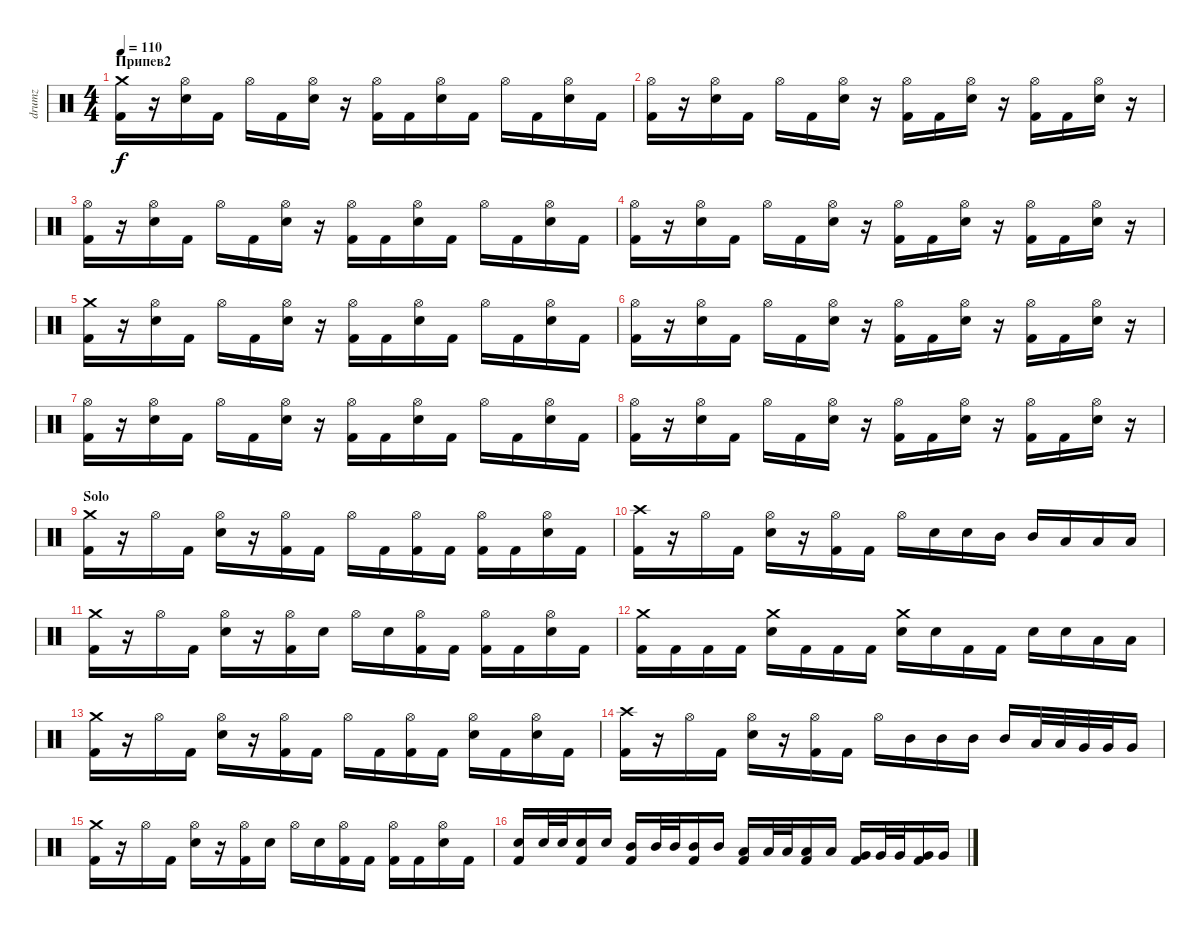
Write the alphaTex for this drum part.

\track ("drumz" "drumz") {instrument percussion}
\staff {score}
\articulation defaults
\ts (4 4)
\section ("" "Припев2")
\tempo 110
\clef neutral
\ks c
("Crash medium (hit)" "Kick (hit) 2").16{dy f} r.16 ("Hi-Hat (open)" "Electric Snare (hit)").16 "Kick (hit) 2".16 "Hi-Hat (open)".16 "Kick (hit) 2".16 ("Hi-Hat (open)" "Electric Snare (hit)").16 r.16 ("Hi-Hat (open)" "Kick (hit) 2").16 "Kick (hit) 2".16 ("Hi-Hat (open)" "Electric Snare (hit)").16 "Kick (hit) 2".16 "Hi-Hat (open)".16 "Kick (hit) 2".16 ("Hi-Hat (open)" "Electric Snare (hit)").16 "Kick (hit) 2".16 |
("Hi-Hat (open)" "Kick (hit) 2").16 r.16 ("Hi-Hat (open)" "Electric Snare (hit)").16 "Kick (hit) 2".16 "Hi-Hat (open)".16 "Kick (hit) 2".16 ("Hi-Hat (open)" "Electric Snare (hit)").16 r.16 ("Hi-Hat (open)" "Kick (hit) 2").16 "Kick (hit) 2".16 ("Hi-Hat (open)" "Electric Snare (hit)").16 r.16 ("Hi-Hat (open)" "Kick (hit) 2").16 "Kick (hit) 2".16 ("Hi-Hat (open)" "Electric Snare (hit)").16 r.16 |
("Hi-Hat (open)" "Kick (hit) 2").16 r.16 ("Hi-Hat (open)" "Electric Snare (hit)").16 "Kick (hit) 2".16 "Hi-Hat (open)".16 "Kick (hit) 2".16 ("Hi-Hat (open)" "Electric Snare (hit)").16 r.16 ("Hi-Hat (open)" "Kick (hit) 2").16 "Kick (hit) 2".16 ("Hi-Hat (open)" "Electric Snare (hit)").16 "Kick (hit) 2".16 "Hi-Hat (open)".16 "Kick (hit) 2".16 ("Hi-Hat (open)" "Electric Snare (hit)").16 "Kick (hit) 2".16 |
("Hi-Hat (open)" "Kick (hit) 2").16 r.16 ("Hi-Hat (open)" "Electric Snare (hit)").16 "Kick (hit) 2".16 "Hi-Hat (open)".16 "Kick (hit) 2".16 ("Hi-Hat (open)" "Electric Snare (hit)").16 r.16 ("Hi-Hat (open)" "Kick (hit) 2").16 "Kick (hit) 2".16 ("Hi-Hat (open)" "Electric Snare (hit)").16 r.16 ("Hi-Hat (open)" "Kick (hit) 2").16 "Kick (hit) 2".16 ("Hi-Hat (open)" "Electric Snare (hit)").16 r.16 |
("Crash medium (hit)" "Kick (hit) 2").16 r.16 ("Hi-Hat (open)" "Electric Snare (hit)").16 "Kick (hit) 2".16 "Hi-Hat (open)".16 "Kick (hit) 2".16 ("Hi-Hat (open)" "Electric Snare (hit)").16 r.16 ("Hi-Hat (open)" "Kick (hit) 2").16 "Kick (hit) 2".16 ("Hi-Hat (open)" "Electric Snare (hit)").16 "Kick (hit) 2".16 "Hi-Hat (open)".16 "Kick (hit) 2".16 ("Hi-Hat (open)" "Electric Snare (hit)").16 "Kick (hit) 2".16 |
("Hi-Hat (open)" "Kick (hit) 2").16 r.16 ("Hi-Hat (open)" "Electric Snare (hit)").16 "Kick (hit) 2".16 "Hi-Hat (open)".16 "Kick (hit) 2".16 ("Hi-Hat (open)" "Electric Snare (hit)").16 r.16 ("Hi-Hat (open)" "Kick (hit) 2").16 "Kick (hit) 2".16 ("Hi-Hat (open)" "Electric Snare (hit)").16 r.16 ("Hi-Hat (open)" "Kick (hit) 2").16 "Kick (hit) 2".16 ("Hi-Hat (open)" "Electric Snare (hit)").16 r.16 |
("Hi-Hat (open)" "Kick (hit) 2").16 r.16 ("Hi-Hat (open)" "Electric Snare (hit)").16 "Kick (hit) 2".16 "Hi-Hat (open)".16 "Kick (hit) 2".16 ("Hi-Hat (open)" "Electric Snare (hit)").16 r.16 ("Hi-Hat (open)" "Kick (hit) 2").16 "Kick (hit) 2".16 ("Hi-Hat (open)" "Electric Snare (hit)").16 "Kick (hit) 2".16 "Hi-Hat (open)".16 "Kick (hit) 2".16 ("Hi-Hat (open)" "Electric Snare (hit)").16 "Kick (hit) 2".16 |
("Hi-Hat (open)" "Kick (hit) 2").16 r.16 ("Hi-Hat (open)" "Electric Snare (hit)").16 "Kick (hit) 2".16 "Hi-Hat (open)".16 "Kick (hit) 2".16 ("Hi-Hat (open)" "Electric Snare (hit)").16 r.16 ("Hi-Hat (open)" "Kick (hit) 2").16 "Kick (hit) 2".16 ("Hi-Hat (open)" "Electric Snare (hit)").16 r.16 ("Hi-Hat (open)" "Kick (hit) 2").16 "Kick (hit) 2".16 ("Hi-Hat (open)" "Electric Snare (hit)").16 r.16 |
\section ("" "Solo")
("Crash medium (hit)" "Kick (hit) 2").16 r.16 "Hi-Hat (open)".16 "Kick (hit) 2".16 ("Hi-Hat (open)" "Electric Snare (hit)").16 r.16 ("Hi-Hat (open)" "Kick (hit) 2").16 "Kick (hit) 2".16 "Hi-Hat (open)".16 "Kick (hit) 2".16 ("Hi-Hat (open)" "Kick (hit) 2").16 "Kick (hit) 2".16 ("Hi-Hat (open)" "Kick (hit) 2").16 "Kick (hit) 2".16 ("Hi-Hat (open)" "Electric Snare (hit)").16 "Kick (hit) 2".16 |
("Crash high (hit)" "Kick (hit) 2").16 r.16 "Hi-Hat (open)".16 "Kick (hit) 2".16 ("Hi-Hat (open)" "Electric Snare (hit)").16 r.16 ("Hi-Hat (open)" "Kick (hit) 2").16 "Kick (hit) 2".16 "Hi-Hat (open)".16 "Electric Snare (hit)".16 "Electric Snare (hit)".16 "Mid Tom (hit)".16 "Mid Tom (hit)".16 "Low Tom (hit)".16 "Low Tom (hit)".16 "Low Tom (hit)".16 |
("Crash medium (hit)" "Kick (hit) 2").16 r.16 "Hi-Hat (open)".16 "Kick (hit) 2".16 ("Hi-Hat (open)" "Electric Snare (hit)").16 r.16 ("Hi-Hat (open)" "Kick (hit) 2").16 "Electric Snare (hit)".16 "Hi-Hat (open)".16 "Electric Snare (hit)".16 ("Hi-Hat (open)" "Kick (hit) 2").16 "Kick (hit) 2".16 ("Hi-Hat (open)" "Kick (hit) 2").16 "Kick (hit) 2".16 ("Hi-Hat (open)" "Electric Snare (hit)").16 "Kick (hit) 2".16 |
("Crash medium (hit)" "Kick (hit) 2").16 "Kick (hit) 2".16 "Kick (hit) 2".16 "Kick (hit) 2".16 ("Crash medium (hit)" "Electric Snare (hit)").16 "Kick (hit) 2".16 "Kick (hit) 2".16 "Kick (hit) 2".16 ("Crash medium (hit)" "Electric Snare (hit)").16 "Electric Snare (hit)".16 "Kick (hit) 2".16 "Kick (hit) 2".16 "Electric Snare (hit)".16 "Electric Snare (hit)".16 "Low Tom (hit)".16 "Low Tom (hit)".16 |
("Crash medium (hit)" "Kick (hit) 2").16 r.16 "Hi-Hat (open)".16 "Kick (hit) 2".16 ("Hi-Hat (open)" "Electric Snare (hit)").16 r.16 ("Hi-Hat (open)" "Kick (hit) 2").16 "Kick (hit) 2".16 "Hi-Hat (open)".16 "Kick (hit) 2".16 ("Hi-Hat (open)" "Kick (hit) 2").16 "Kick (hit) 2".16 ("Hi-Hat (open)" "Electric Snare (hit)").16 "Kick (hit) 2".16 ("Hi-Hat (open)" "Electric Snare (hit)").16 "Kick (hit) 2".16 |
("Crash high (hit)" "Kick (hit) 2").16 r.16 "Hi-Hat (open)".16 "Kick (hit) 2".16 ("Hi-Hat (open)" "Electric Snare (hit)").16 r.16 ("Hi-Hat (open)" "Kick (hit) 2").16 "Kick (hit) 2".16 "Hi-Hat (open)".16 "Mid Tom (hit)".16 "Mid Tom (hit)".16 "Mid Tom (hit)".16 "Mid Tom (hit)".16 "Low Tom (hit)".32 "Low Tom (hit)".32 "Very Low Tom (hit)".32 "Very Low Tom (hit)".32 "Very Low Tom (hit)".16 |
("Crash medium (hit)" "Kick (hit) 2").16 r.16 "Hi-Hat (open)".16 "Kick (hit) 2".16 ("Hi-Hat (open)" "Electric Snare (hit)").16 r.16 ("Hi-Hat (open)" "Kick (hit) 2").16 "Electric Snare (hit)".16 "Hi-Hat (open)".16 "Electric Snare (hit)".16 ("Hi-Hat (open)" "Kick (hit) 2").16 "Kick (hit) 2".16 ("Hi-Hat (open)" "Kick (hit) 2").16 "Kick (hit) 2".16 ("Hi-Hat (open)" "Electric Snare (hit)").16 "Kick (hit) 2".16 |
("Electric Snare (hit)" "Kick (hit) 2").16 "Electric Snare (hit)".32 "Electric Snare (hit)".32 ("Electric Snare (hit)" "Kick (hit) 2").16 "Electric Snare (hit)".16 ("Mid Tom (hit)" "Kick (hit) 2").16 "Mid Tom (hit)".32 "Mid Tom (hit)".32 ("Mid Tom (hit)" "Kick (hit) 2").16 "Mid Tom (hit)".16 ("Low Tom (hit)" "Kick (hit) 2").16 "Low Tom (hit)".32 "Low Tom (hit)".32 ("Low Tom (hit)" "Kick (hit) 2").16 "Low Tom (hit)".16 ("Very Low Tom (hit)" "Kick (hit) 2").16 "Very Low Tom (hit)".32 "Very Low Tom (hit)".32 ("Very Low Tom (hit)" "Kick (hit) 2").16 "Very Low Tom (hit)".16
